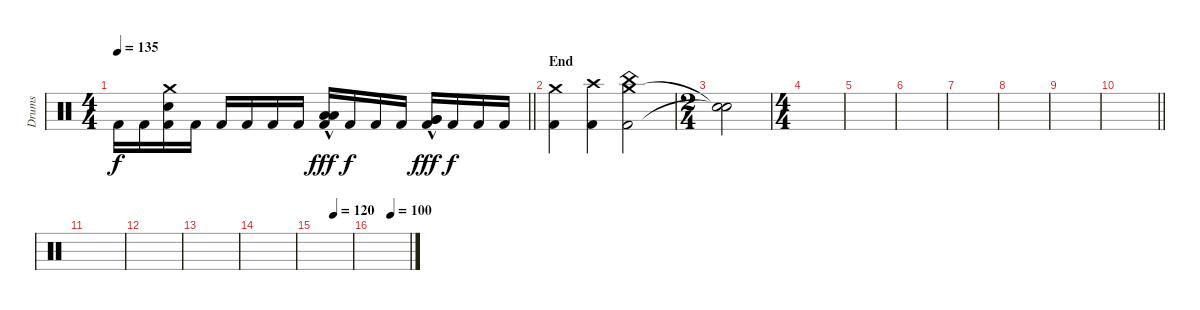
\track ("Drums" "Drums") {instrument percussion}
\staff {score}
\articulation defaults
\ts (4 4)
\tempo 135
\clef neutral
\barLineRight lightlight
\ks c "Kick (hit) 2".16{dy f} "Kick (hit) 2".16
("Kick (hit) 2" "Snare (hit) 2" "Crash medium (hit)").16 "Kick (hit) 2".16 "Kick (hit) 2".16 "Kick (hit) 2".16 "Kick (hit) 2".16 "Kick (hit) 2".16 ("Kick (hit) 2" "Low Tom (hit)" "Low Tom (hit)"{hac}).16{dy fff} "Kick (hit) 2".16{dy f} "Kick (hit) 2".16 "Kick (hit) 2".16 ("Kick (hit) 2" "Very Low Tom (hit)" "Very Low Tom (hit)"{hac}).16{dy fff} "Kick (hit) 2".16{dy f} "Kick (hit) 2".16 "Kick (hit) 2".16 |
\section ("" "End")
("Kick (hit) 2" "Crash medium (hit)").4 ("Kick (hit) 2" "Crash high (hit)").4 ("Kick (hit) 2" "Crash medium (hit)" "China (hit)").2 |
\ts (2 4)
("Snare (hit)"{t} "Snare (hit)"{t}).2 |
\ts (4 4)
|
|
|
|
|
|
\barLineRight lightlight
|
|
|
|
|
\tempo (120 0.5)
|
\tempo (100 0.5)
